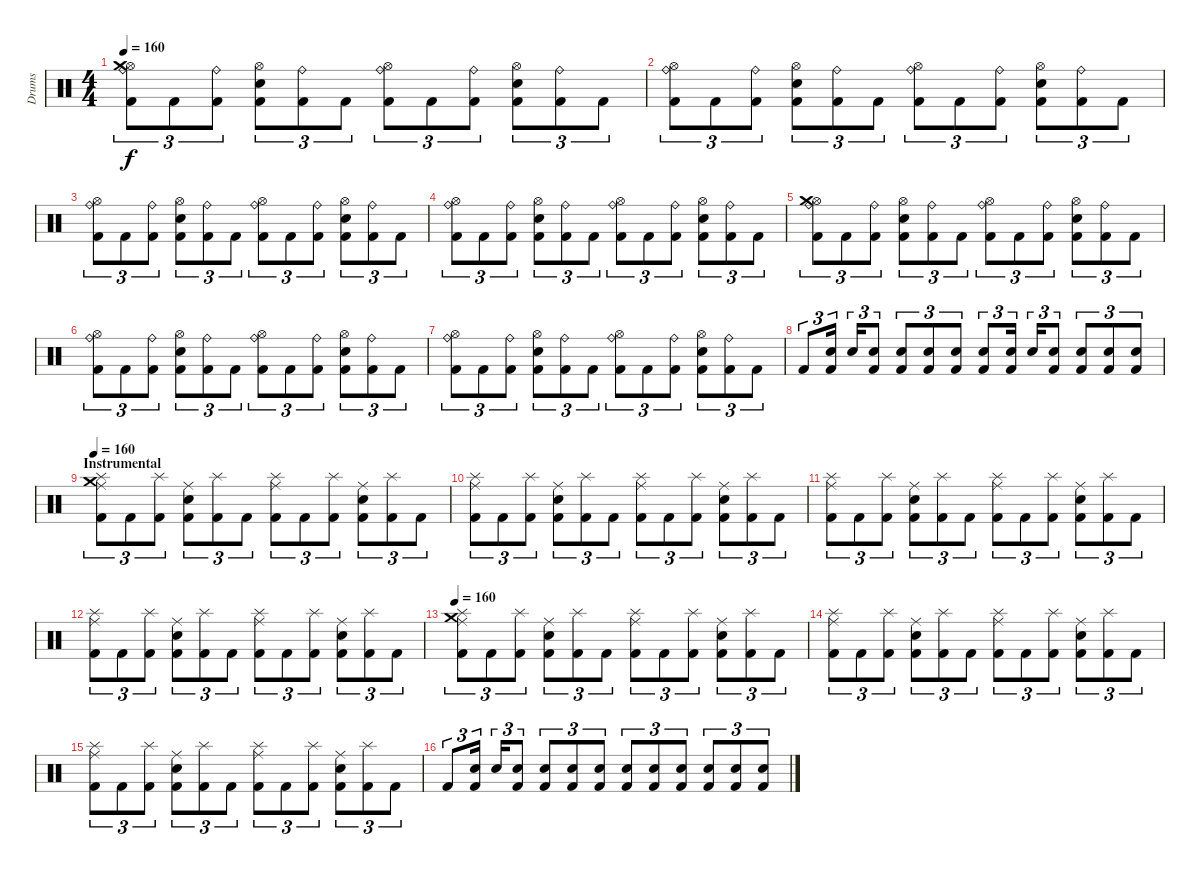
\track ("Drums" "Drums") {instrument percussion}
\staff {score}
\articulation defaults
\ts (4 4)
\tempo 160
\clef neutral
\ks c
("Ride (bell)" "Hi-Hat (open)" "Crash medium (hit)" "Kick (hit) 2").8{tu (3 2) dy f} "Kick (hit) 2".8{tu (3 2)} ("Ride (bell)" "Kick (hit) 2").8{tu (3 2)} ("Hi-Hat (open)" "Snare (hit) 2" "Kick (hit) 2").8{tu (3 2)} ("Ride (bell)" "Kick (hit) 2").8{tu (3 2)} "Kick (hit) 2".8{tu (3 2)} ("Ride (bell)" "Hi-Hat (open)" "Kick (hit) 2").8{tu (3 2)} "Kick (hit) 2".8{tu (3 2)} ("Ride (bell)" "Kick (hit) 2").8{tu (3 2)} ("Hi-Hat (open)" "Snare (hit) 2" "Kick (hit) 2").8{tu (3 2)} ("Ride (bell)" "Kick (hit) 2").8{tu (3 2)} "Kick (hit) 2".8{tu (3 2)} |
("Ride (bell)" "Hi-Hat (open)" "Kick (hit) 2").8{tu (3 2)} "Kick (hit) 2".8{tu (3 2)} ("Ride (bell)" "Kick (hit) 2").8{tu (3 2)} ("Hi-Hat (open)" "Snare (hit) 2" "Kick (hit) 2").8{tu (3 2)} ("Ride (bell)" "Kick (hit) 2").8{tu (3 2)} "Kick (hit) 2".8{tu (3 2)} ("Ride (bell)" "Hi-Hat (open)" "Kick (hit) 2").8{tu (3 2)} "Kick (hit) 2".8{tu (3 2)} ("Ride (bell)" "Kick (hit) 2").8{tu (3 2)} ("Hi-Hat (open)" "Snare (hit) 2" "Kick (hit) 2").8{tu (3 2)} ("Ride (bell)" "Kick (hit) 2").8{tu (3 2)} "Kick (hit) 2".8{tu (3 2)} |
("Ride (bell)" "Hi-Hat (open)" "Kick (hit) 2").8{tu (3 2)} "Kick (hit) 2".8{tu (3 2)} ("Ride (bell)" "Kick (hit) 2").8{tu (3 2)} ("Hi-Hat (open)" "Snare (hit) 2" "Kick (hit) 2").8{tu (3 2)} ("Ride (bell)" "Kick (hit) 2").8{tu (3 2)} "Kick (hit) 2".8{tu (3 2)} ("Ride (bell)" "Hi-Hat (open)" "Kick (hit) 2").8{tu (3 2)} "Kick (hit) 2".8{tu (3 2)} ("Ride (bell)" "Kick (hit) 2").8{tu (3 2)} ("Hi-Hat (open)" "Snare (hit) 2" "Kick (hit) 2").8{tu (3 2)} ("Ride (bell)" "Kick (hit) 2").8{tu (3 2)} "Kick (hit) 2".8{tu (3 2)} |
("Ride (bell)" "Hi-Hat (open)" "Kick (hit) 2").8{tu (3 2)} "Kick (hit) 2".8{tu (3 2)} ("Ride (bell)" "Kick (hit) 2").8{tu (3 2)} ("Hi-Hat (open)" "Snare (hit) 2" "Kick (hit) 2").8{tu (3 2)} ("Ride (bell)" "Kick (hit) 2").8{tu (3 2)} "Kick (hit) 2".8{tu (3 2)} ("Ride (bell)" "Hi-Hat (open)" "Kick (hit) 2").8{tu (3 2)} "Kick (hit) 2".8{tu (3 2)} ("Ride (bell)" "Kick (hit) 2").8{tu (3 2)} ("Hi-Hat (open)" "Snare (hit) 2" "Kick (hit) 2").8{tu (3 2)} ("Ride (bell)" "Kick (hit) 2").8{tu (3 2)} "Kick (hit) 2".8{tu (3 2)} |
("Ride (bell)" "Hi-Hat (open)" "Crash medium (hit)" "Kick (hit) 2").8{tu (3 2)} "Kick (hit) 2".8{tu (3 2)} ("Ride (bell)" "Kick (hit) 2").8{tu (3 2)} ("Hi-Hat (open)" "Snare (hit) 2" "Kick (hit) 2").8{tu (3 2)} ("Ride (bell)" "Kick (hit) 2").8{tu (3 2)} "Kick (hit) 2".8{tu (3 2)} ("Ride (bell)" "Hi-Hat (open)" "Kick (hit) 2").8{tu (3 2)} "Kick (hit) 2".8{tu (3 2)} ("Ride (bell)" "Kick (hit) 2").8{tu (3 2)} ("Hi-Hat (open)" "Snare (hit) 2" "Kick (hit) 2").8{tu (3 2)} ("Ride (bell)" "Kick (hit) 2").8{tu (3 2)} "Kick (hit) 2".8{tu (3 2)} |
("Ride (bell)" "Hi-Hat (open)" "Kick (hit) 2").8{tu (3 2)} "Kick (hit) 2".8{tu (3 2)} ("Ride (bell)" "Kick (hit) 2").8{tu (3 2)} ("Hi-Hat (open)" "Snare (hit) 2" "Kick (hit) 2").8{tu (3 2)} ("Ride (bell)" "Kick (hit) 2").8{tu (3 2)} "Kick (hit) 2".8{tu (3 2)} ("Ride (bell)" "Hi-Hat (open)" "Kick (hit) 2").8{tu (3 2)} "Kick (hit) 2".8{tu (3 2)} ("Ride (bell)" "Kick (hit) 2").8{tu (3 2)} ("Hi-Hat (open)" "Snare (hit) 2" "Kick (hit) 2").8{tu (3 2)} ("Ride (bell)" "Kick (hit) 2").8{tu (3 2)} "Kick (hit) 2".8{tu (3 2)} |
("Ride (bell)" "Hi-Hat (open)" "Kick (hit) 2").8{tu (3 2)} "Kick (hit) 2".8{tu (3 2)} ("Ride (bell)" "Kick (hit) 2").8{tu (3 2)} ("Hi-Hat (open)" "Snare (hit) 2" "Kick (hit) 2").8{tu (3 2)} ("Ride (bell)" "Kick (hit) 2").8{tu (3 2)} "Kick (hit) 2".8{tu (3 2)} ("Ride (bell)" "Hi-Hat (open)" "Kick (hit) 2").8{tu (3 2)} "Kick (hit) 2".8{tu (3 2)} ("Ride (bell)" "Kick (hit) 2").8{tu (3 2)} ("Hi-Hat (open)" "Snare (hit) 2" "Kick (hit) 2").8{tu (3 2)} ("Ride (bell)" "Kick (hit) 2").8{tu (3 2)} "Kick (hit) 2".8{tu (3 2)} |
"Kick (hit) 2".8{tu (3 2)} ("Snare (hit) 2" "Kick (hit) 2").16{tu (3 2)} "Snare (hit) 2".16{tu (3 2)} ("Snare (hit) 2" "Kick (hit) 2").8{tu (3 2)} ("Snare (hit) 2" "Kick (hit) 2").8{tu (3 2)} ("Snare (hit) 2" "Kick (hit) 2").8{tu (3 2)} ("Snare (hit) 2" "Kick (hit) 2").8{tu (3 2)} ("Snare (hit) 2" "Kick (hit) 2").8{tu (3 2)} ("Snare (hit) 2" "Kick (hit) 2").16{tu (3 2)} "Snare (hit) 2".16{tu (3 2)} ("Snare (hit) 2" "Kick (hit) 2").8{tu (3 2)} ("Snare (hit) 2" "Kick (hit) 2").8{tu (3 2)} ("Snare (hit) 2" "Kick (hit) 2").8{tu (3 2)} ("Snare (hit) 2" "Kick (hit) 2").8{tu (3 2)} |
\section ("" "Instrumental")
\tempo 160
("Splash (hit)" "Ride (middle)" "Crash medium (hit)" "Kick (hit) 2").8{tu (3 2)} "Kick (hit) 2".8{tu (3 2)} ("Splash (hit)" "Kick (hit) 2").8{tu (3 2)} ("Ride (middle)" "Snare (hit) 2" "Kick (hit) 2").8{tu (3 2)} ("Splash (hit)" "Kick (hit) 2").8{tu (3 2)} "Kick (hit) 2".8{tu (3 2)} ("Splash (hit)" "Ride (middle)" "Kick (hit) 2").8{tu (3 2)} "Kick (hit) 2".8{tu (3 2)} ("Splash (hit)" "Kick (hit) 2").8{tu (3 2)} ("Ride (middle)" "Snare (hit) 2" "Kick (hit) 2").8{tu (3 2)} ("Splash (hit)" "Kick (hit) 2").8{tu (3 2)} "Kick (hit) 2".8{tu (3 2)} |
("Splash (hit)" "Ride (middle)" "Kick (hit) 2").8{tu (3 2)} "Kick (hit) 2".8{tu (3 2)} ("Splash (hit)" "Kick (hit) 2").8{tu (3 2)} ("Ride (middle)" "Snare (hit) 2" "Kick (hit) 2").8{tu (3 2)} ("Splash (hit)" "Kick (hit) 2").8{tu (3 2)} "Kick (hit) 2".8{tu (3 2)} ("Splash (hit)" "Ride (middle)" "Kick (hit) 2").8{tu (3 2)} "Kick (hit) 2".8{tu (3 2)} ("Splash (hit)" "Kick (hit) 2").8{tu (3 2)} ("Ride (middle)" "Snare (hit) 2" "Kick (hit) 2").8{tu (3 2)} ("Splash (hit)" "Kick (hit) 2").8{tu (3 2)} "Kick (hit) 2".8{tu (3 2)} |
("Splash (hit)" "Ride (middle)" "Kick (hit) 2").8{tu (3 2)} "Kick (hit) 2".8{tu (3 2)} ("Splash (hit)" "Kick (hit) 2").8{tu (3 2)} ("Ride (middle)" "Snare (hit) 2" "Kick (hit) 2").8{tu (3 2)} ("Splash (hit)" "Kick (hit) 2").8{tu (3 2)} "Kick (hit) 2".8{tu (3 2)} ("Splash (hit)" "Ride (middle)" "Kick (hit) 2").8{tu (3 2)} "Kick (hit) 2".8{tu (3 2)} ("Splash (hit)" "Kick (hit) 2").8{tu (3 2)} ("Ride (middle)" "Snare (hit) 2" "Kick (hit) 2").8{tu (3 2)} ("Splash (hit)" "Kick (hit) 2").8{tu (3 2)} "Kick (hit) 2".8{tu (3 2)} |
("Splash (hit)" "Ride (middle)" "Kick (hit) 2").8{tu (3 2)} "Kick (hit) 2".8{tu (3 2)} ("Splash (hit)" "Kick (hit) 2").8{tu (3 2)} ("Ride (middle)" "Snare (hit) 2" "Kick (hit) 2").8{tu (3 2)} ("Splash (hit)" "Kick (hit) 2").8{tu (3 2)} "Kick (hit) 2".8{tu (3 2)} ("Splash (hit)" "Ride (middle)" "Kick (hit) 2").8{tu (3 2)} "Kick (hit) 2".8{tu (3 2)} ("Splash (hit)" "Kick (hit) 2").8{tu (3 2)} ("Ride (middle)" "Snare (hit) 2" "Kick (hit) 2").8{tu (3 2)} ("Splash (hit)" "Kick (hit) 2").8{tu (3 2)} "Kick (hit) 2".8{tu (3 2)} |
\tempo 160
("Splash (hit)" "Ride (middle)" "Crash medium (hit)" "Kick (hit) 2").8{tu (3 2)} "Kick (hit) 2".8{tu (3 2)} ("Splash (hit)" "Kick (hit) 2").8{tu (3 2)} ("Ride (middle)" "Snare (hit) 2" "Kick (hit) 2").8{tu (3 2)} ("Splash (hit)" "Kick (hit) 2").8{tu (3 2)} "Kick (hit) 2".8{tu (3 2)} ("Splash (hit)" "Ride (middle)" "Kick (hit) 2").8{tu (3 2)} "Kick (hit) 2".8{tu (3 2)} ("Splash (hit)" "Kick (hit) 2").8{tu (3 2)} ("Ride (middle)" "Snare (hit) 2" "Kick (hit) 2").8{tu (3 2)} ("Splash (hit)" "Kick (hit) 2").8{tu (3 2)} "Kick (hit) 2".8{tu (3 2)} |
("Splash (hit)" "Ride (middle)" "Kick (hit) 2").8{tu (3 2)} "Kick (hit) 2".8{tu (3 2)} ("Splash (hit)" "Kick (hit) 2").8{tu (3 2)} ("Ride (middle)" "Snare (hit) 2" "Kick (hit) 2").8{tu (3 2)} ("Splash (hit)" "Kick (hit) 2").8{tu (3 2)} "Kick (hit) 2".8{tu (3 2)} ("Splash (hit)" "Ride (middle)" "Kick (hit) 2").8{tu (3 2)} "Kick (hit) 2".8{tu (3 2)} ("Splash (hit)" "Kick (hit) 2").8{tu (3 2)} ("Ride (middle)" "Snare (hit) 2" "Kick (hit) 2").8{tu (3 2)} ("Splash (hit)" "Kick (hit) 2").8{tu (3 2)} "Kick (hit) 2".8{tu (3 2)} |
("Splash (hit)" "Ride (middle)" "Kick (hit) 2").8{tu (3 2)} "Kick (hit) 2".8{tu (3 2)} ("Splash (hit)" "Kick (hit) 2").8{tu (3 2)} ("Ride (middle)" "Snare (hit) 2" "Kick (hit) 2").8{tu (3 2)} ("Splash (hit)" "Kick (hit) 2").8{tu (3 2)} "Kick (hit) 2".8{tu (3 2)} ("Splash (hit)" "Ride (middle)" "Kick (hit) 2").8{tu (3 2)} "Kick (hit) 2".8{tu (3 2)} ("Splash (hit)" "Kick (hit) 2").8{tu (3 2)} ("Ride (middle)" "Snare (hit) 2" "Kick (hit) 2").8{tu (3 2)} ("Splash (hit)" "Kick (hit) 2").8{tu (3 2)} "Kick (hit) 2".8{tu (3 2)} |
"Kick (hit) 2".8{tu (3 2)} ("Snare (hit) 2" "Kick (hit) 2").16{tu (3 2)} "Snare (hit) 2".16{tu (3 2)} ("Snare (hit) 2" "Kick (hit) 2").8{tu (3 2)} ("Snare (hit) 2" "Kick (hit) 2").8{tu (3 2)} ("Snare (hit) 2" "Kick (hit) 2").8{tu (3 2)} ("Snare (hit) 2" "Kick (hit) 2").8{tu (3 2)} ("Snare (hit) 2" "Kick (hit) 2").8{tu (3 2)} ("Snare (hit) 2" "Kick (hit) 2").8{tu (3 2)} ("Snare (hit) 2" "Kick (hit) 2").8{tu (3 2)} ("Snare (hit) 2" "Kick (hit) 2").8{tu (3 2)} ("Snare (hit) 2" "Kick (hit) 2").8{tu (3 2)} ("Snare (hit) 2" "Kick (hit) 2").8{tu (3 2)}
